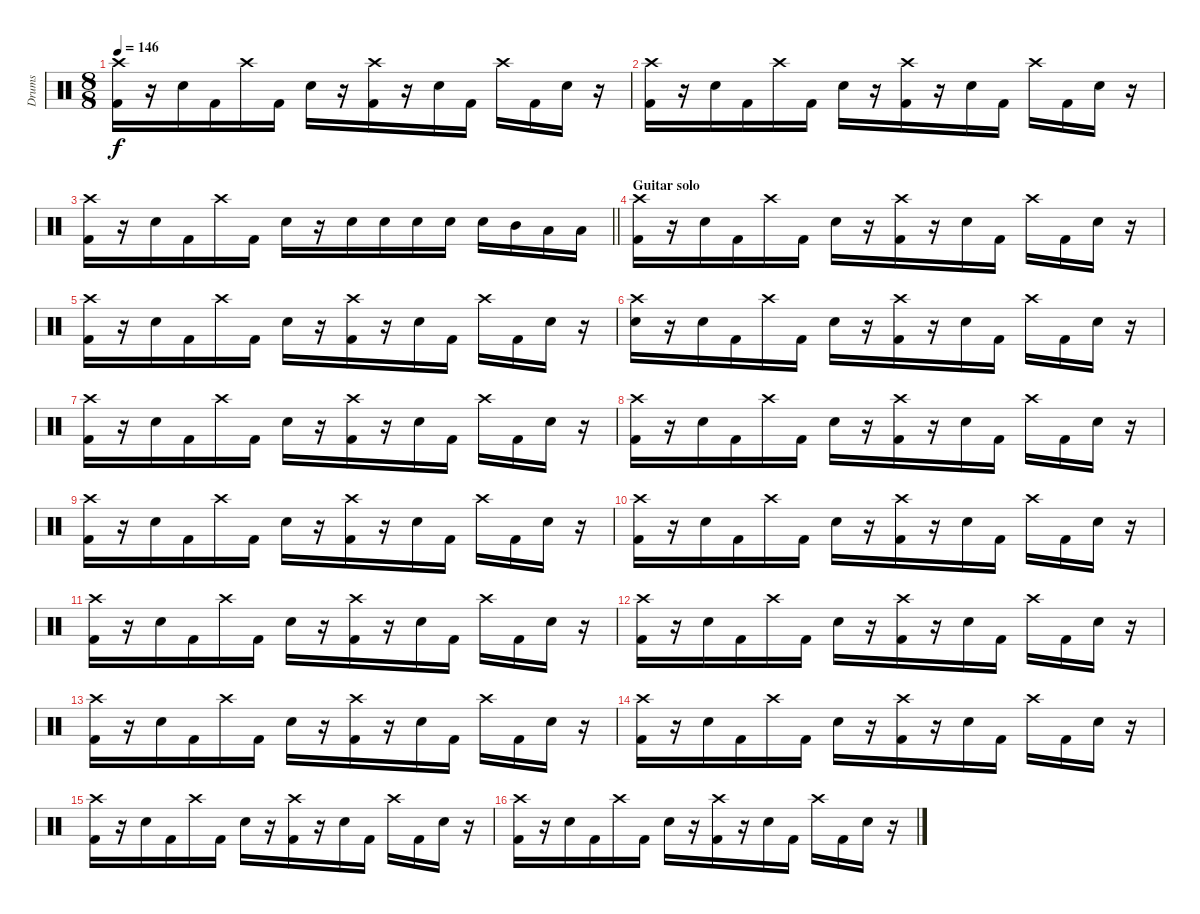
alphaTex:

\track ("Drums" "Drums") {instrument percussion}
\staff {score}
\articulation defaults
\ts (8 8)
\tempo 146
\clef neutral
\ks c
("Crash high (hit)" "Kick (hit) 2").16{dy f} r.16 "Snare (hit) 2".16 "Kick (hit) 2".16 "Crash high (hit)".16 "Kick (hit) 2".16 "Snare (hit) 2".16 r.16 ("Crash high (hit)" "Kick (hit) 2").16 r.16 "Snare (hit) 2".16 "Kick (hit) 2".16 "Crash high (hit)".16 "Kick (hit) 2".16 "Snare (hit) 2".16 r.16 |
("Crash high (hit)" "Kick (hit) 2").16 r.16 "Snare (hit) 2".16 "Kick (hit) 2".16 "Crash high (hit)".16 "Kick (hit) 2".16 "Snare (hit) 2".16 r.16 ("Crash high (hit)" "Kick (hit) 2").16 r.16 "Snare (hit) 2".16 "Kick (hit) 2".16 "Crash high (hit)".16 "Kick (hit) 2".16 "Snare (hit) 2".16 r.16 |
\barLineRight lightlight
("Crash high (hit)" "Kick (hit) 2").16 r.16 "Snare (hit) 2".16 "Kick (hit) 2".16 "Crash high (hit)".16 "Kick (hit) 2".16 "Snare (hit) 2".16 r.16 "Snare (hit) 2".16 "Snare (hit) 2".16 "Snare (hit) 2".16 "Snare (hit) 2".16 "Snare (hit) 2".16 "Mid Tom (hit)".16 "Low Tom (hit)".16 "Low Floor Tom (hit)".16 |
\section ("" "Guitar solo")
("Crash high (hit)" "Kick (hit) 2").16 r.16 "Snare (hit) 2".16 "Kick (hit) 2".16 "Crash high (hit)".16 "Kick (hit) 2".16 "Snare (hit) 2".16 r.16 ("Crash high (hit)" "Kick (hit) 2").16 r.16 "Snare (hit) 2".16 "Kick (hit) 2".16 "Crash high (hit)".16 "Kick (hit) 2".16 "Snare (hit) 2".16 r.16 |
("Crash high (hit)" "Kick (hit) 2").16 r.16 "Snare (hit) 2".16 "Kick (hit) 2".16 "Crash high (hit)".16 "Kick (hit) 2".16 "Snare (hit) 2".16 r.16 ("Crash high (hit)" "Kick (hit) 2").16 r.16 "Snare (hit) 2".16 "Kick (hit) 2".16 "Crash high (hit)".16 "Kick (hit) 2".16 "Snare (hit) 2".16 r.16 |
("Crash high (hit)" "Snare (hit) 2").16 r.16 "Snare (hit) 2".16 "Kick (hit) 2".16 "Crash high (hit)".16 "Kick (hit) 2".16 "Snare (hit) 2".16 r.16 ("Crash high (hit)" "Kick (hit) 2").16 r.16 "Snare (hit) 2".16 "Kick (hit) 2".16 "Crash high (hit)".16 "Kick (hit) 2".16 "Snare (hit) 2".16 r.16 |
("Crash high (hit)" "Kick (hit) 2").16 r.16 "Snare (hit) 2".16 "Kick (hit) 2".16 "Crash high (hit)".16 "Kick (hit) 2".16 "Snare (hit) 2".16 r.16 ("Crash high (hit)" "Kick (hit) 2").16 r.16 "Snare (hit) 2".16 "Kick (hit) 2".16 "Crash high (hit)".16 "Kick (hit) 2".16 "Snare (hit) 2".16 r.16 |
("Crash high (hit)" "Kick (hit) 2").16 r.16 "Snare (hit) 2".16 "Kick (hit) 2".16 "Crash high (hit)".16 "Kick (hit) 2".16 "Snare (hit) 2".16 r.16 ("Crash high (hit)" "Kick (hit) 2").16 r.16 "Snare (hit) 2".16 "Kick (hit) 2".16 "Crash high (hit)".16 "Kick (hit) 2".16 "Snare (hit) 2".16 r.16 |
("Crash high (hit)" "Kick (hit) 2").16 r.16 "Snare (hit) 2".16 "Kick (hit) 2".16 "Crash high (hit)".16 "Kick (hit) 2".16 "Snare (hit) 2".16 r.16 ("Crash high (hit)" "Kick (hit) 2").16 r.16 "Snare (hit) 2".16 "Kick (hit) 2".16 "Crash high (hit)".16 "Kick (hit) 2".16 "Snare (hit) 2".16 r.16 |
("Crash high (hit)" "Kick (hit) 2").16 r.16 "Snare (hit) 2".16 "Kick (hit) 2".16 "Crash high (hit)".16 "Kick (hit) 2".16 "Snare (hit) 2".16 r.16 ("Crash high (hit)" "Kick (hit) 2").16 r.16 "Snare (hit) 2".16 "Kick (hit) 2".16 "Crash high (hit)".16 "Kick (hit) 2".16 "Snare (hit) 2".16 r.16 |
("Crash high (hit)" "Kick (hit) 2").16 r.16 "Snare (hit) 2".16 "Kick (hit) 2".16 "Crash high (hit)".16 "Kick (hit) 2".16 "Snare (hit) 2".16 r.16 ("Crash high (hit)" "Kick (hit) 2").16 r.16 "Snare (hit) 2".16 "Kick (hit) 2".16 "Crash high (hit)".16 "Kick (hit) 2".16 "Snare (hit) 2".16 r.16 |
("Crash high (hit)" "Kick (hit) 2").16 r.16 "Snare (hit) 2".16 "Kick (hit) 2".16 "Crash high (hit)".16 "Kick (hit) 2".16 "Snare (hit) 2".16 r.16 ("Crash high (hit)" "Kick (hit) 2").16 r.16 "Snare (hit) 2".16 "Kick (hit) 2".16 "Crash high (hit)".16 "Kick (hit) 2".16 "Snare (hit) 2".16 r.16 |
("Crash high (hit)" "Kick (hit) 2").16 r.16 "Snare (hit) 2".16 "Kick (hit) 2".16 "Crash high (hit)".16 "Kick (hit) 2".16 "Snare (hit) 2".16 r.16 ("Crash high (hit)" "Kick (hit) 2").16 r.16 "Snare (hit) 2".16 "Kick (hit) 2".16 "Crash high (hit)".16 "Kick (hit) 2".16 "Snare (hit) 2".16 r.16 |
("Crash high (hit)" "Kick (hit) 2").16 r.16 "Snare (hit) 2".16 "Kick (hit) 2".16 "Crash high (hit)".16 "Kick (hit) 2".16 "Snare (hit) 2".16 r.16 ("Crash high (hit)" "Kick (hit) 2").16 r.16 "Snare (hit) 2".16 "Kick (hit) 2".16 "Crash high (hit)".16 "Kick (hit) 2".16 "Snare (hit) 2".16 r.16 |
("Crash high (hit)" "Kick (hit) 2").16 r.16 "Snare (hit) 2".16 "Kick (hit) 2".16 "Crash high (hit)".16 "Kick (hit) 2".16 "Snare (hit) 2".16 r.16 ("Crash high (hit)" "Kick (hit) 2").16 r.16 "Snare (hit) 2".16 "Kick (hit) 2".16 "Crash high (hit)".16 "Kick (hit) 2".16 "Snare (hit) 2".16 r.16 |
("Crash high (hit)" "Kick (hit) 2").16 r.16 "Snare (hit) 2".16 "Kick (hit) 2".16 "Crash high (hit)".16 "Kick (hit) 2".16 "Snare (hit) 2".16 r.16 ("Crash high (hit)" "Kick (hit) 2").16 r.16 "Snare (hit) 2".16 "Kick (hit) 2".16 "Crash high (hit)".16 "Kick (hit) 2".16 "Snare (hit) 2".16 r.16
